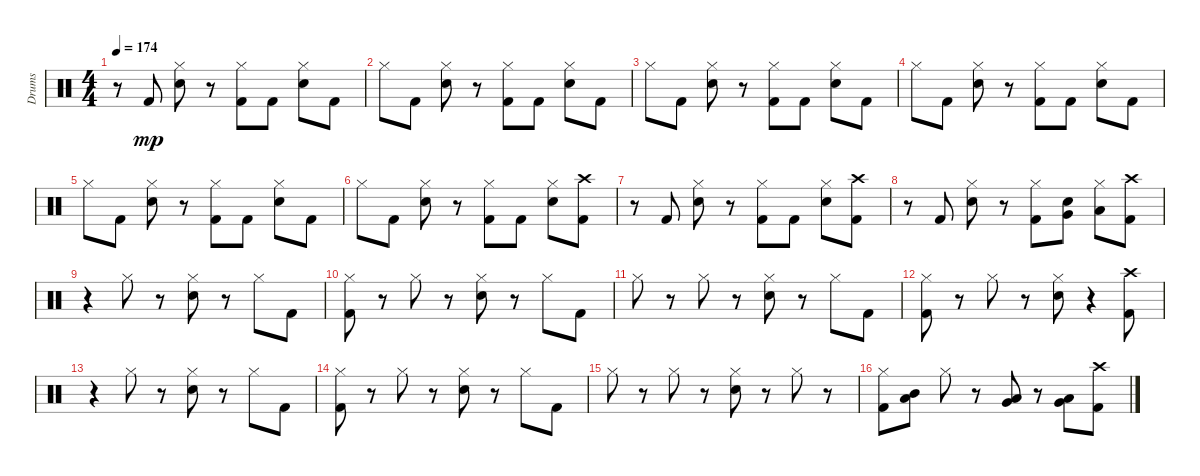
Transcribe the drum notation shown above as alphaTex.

\track ("Drums" "Drums") {instrument percussion}
\staff {score}
\articulation defaults
\ts (4 4)
\tempo 174
\clef neutral
\ks c
r.8{dy mp} "Kick (hit) 2".8 ("Snare (hit) 2" "Hi-Hat (closed)").8 r.8 ("Hi-Hat (closed)" "Kick (hit) 2").8 "Kick (hit) 2".8 ("Hi-Hat (closed)" "Snare (hit) 2").8 "Kick (hit) 2".8 |
"Hi-Hat (closed)".8 "Kick (hit) 2".8 ("Snare (hit) 2" "Hi-Hat (closed)").8 r.8 ("Hi-Hat (closed)" "Kick (hit) 2").8 "Kick (hit) 2".8 ("Hi-Hat (closed)" "Snare (hit) 2").8 "Kick (hit) 2".8 |
"Hi-Hat (closed)".8 "Kick (hit) 2".8 ("Snare (hit) 2" "Hi-Hat (closed)").8 r.8 ("Hi-Hat (closed)" "Kick (hit) 2").8 "Kick (hit) 2".8 ("Hi-Hat (closed)" "Snare (hit) 2").8 "Kick (hit) 2".8 |
"Hi-Hat (closed)".8 "Kick (hit) 2".8 ("Hi-Hat (closed)" "Snare (hit) 2").8 r.8 ("Hi-Hat (closed)" "Kick (hit) 2").8 "Kick (hit) 2".8 ("Hi-Hat (closed)" "Snare (hit) 2").8 "Kick (hit) 2".8 |
"Hi-Hat (closed)".8 "Kick (hit) 2".8 ("Snare (hit) 2" "Hi-Hat (closed)").8 r.8 ("Kick (hit) 2" "Hi-Hat (closed)").8 "Kick (hit) 2".8 ("Hi-Hat (closed)" "Snare (hit) 2").8 "Kick (hit) 2".8 |
"Hi-Hat (closed)".8 "Kick (hit) 2".8 ("Snare (hit) 2" "Hi-Hat (closed)").8 r.8 ("Hi-Hat (closed)" "Kick (hit) 2").8 "Kick (hit) 2".8 ("Hi-Hat (closed)" "Snare (hit) 2").8 ("Crash high (hit)" "Kick (hit) 2").8 |
r.8 "Kick (hit) 2".8 ("Hi-Hat (closed)" "Snare (hit) 2").8 r.8 ("Hi-Hat (closed)" "Kick (hit) 2").8 "Kick (hit) 2".8 ("Hi-Hat (closed)" "Snare (hit) 2").8 ("Kick (hit) 2" "Crash high (hit)").8 |
r.8 "Kick (hit) 2".8 ("Hi-Hat (closed)" "Snare (hit) 2").8 r.8 ("Hi-Hat (closed)" "Kick (hit) 2").8 ("Very Low Tom (hit)" "Snare (hit) 2").8 ("Hi-Hat (closed)" "Low Floor Tom (hit)").8 ("Crash high (hit)" "Kick (hit) 2").8 |
r.4 "Hi-Hat (closed)".8 r.8 ("Snare (hit) 2" "Hi-Hat (closed)").8 r.8 "Hi-Hat (closed)".8 "Kick (hit) 2".8 |
("Hi-Hat (closed)" "Kick (hit) 2").8 r.8 "Hi-Hat (closed)".8 r.8 ("Hi-Hat (closed)" "Snare (hit) 2").8 r.8 "Hi-Hat (closed)".8 "Kick (hit) 2".8 |
"Hi-Hat (closed)".8 r.8 "Hi-Hat (closed)".8 r.8 ("Hi-Hat (closed)" "Snare (hit) 2").8 r.8 "Hi-Hat (closed)".8 "Kick (hit) 2".8 |
("Kick (hit) 2" "Hi-Hat (closed)").8 r.8 "Hi-Hat (closed)".8 r.8 ("Hi-Hat (closed)" "Snare (hit) 2").8 r.4 ("Crash high (hit)" "Kick (hit) 2").8 |
r.4 "Hi-Hat (closed)".8 r.8 ("Snare (hit) 2" "Hi-Hat (closed)").8 r.8 "Hi-Hat (closed)".8 "Kick (hit) 2".8 |
("Hi-Hat (closed)" "Kick (hit) 2").8 r.8 "Hi-Hat (closed)".8 r.8 ("Hi-Hat (closed)" "Snare (hit) 2").8 r.8 "Hi-Hat (closed)".8 "Kick (hit) 2".8 |
"Hi-Hat (closed)".8 r.8 "Hi-Hat (closed)".8 r.8 ("Snare (hit) 2" "Hi-Hat (closed)").8 r.8 "Hi-Hat (closed)".8 r.8 |
("Kick (hit) 2" "Hi-Hat (closed)").8 ("Low Tom (hit)" "Mid Tom (hit)").8 "Hi-Hat (closed)".8 r.8 ("Low Tom (hit)" "Very Low Tom (hit)").8 r.8 ("Low Floor Tom (hit)" "Very Low Tom (hit)").8 ("Crash high (hit)" "Kick (hit) 2").8
